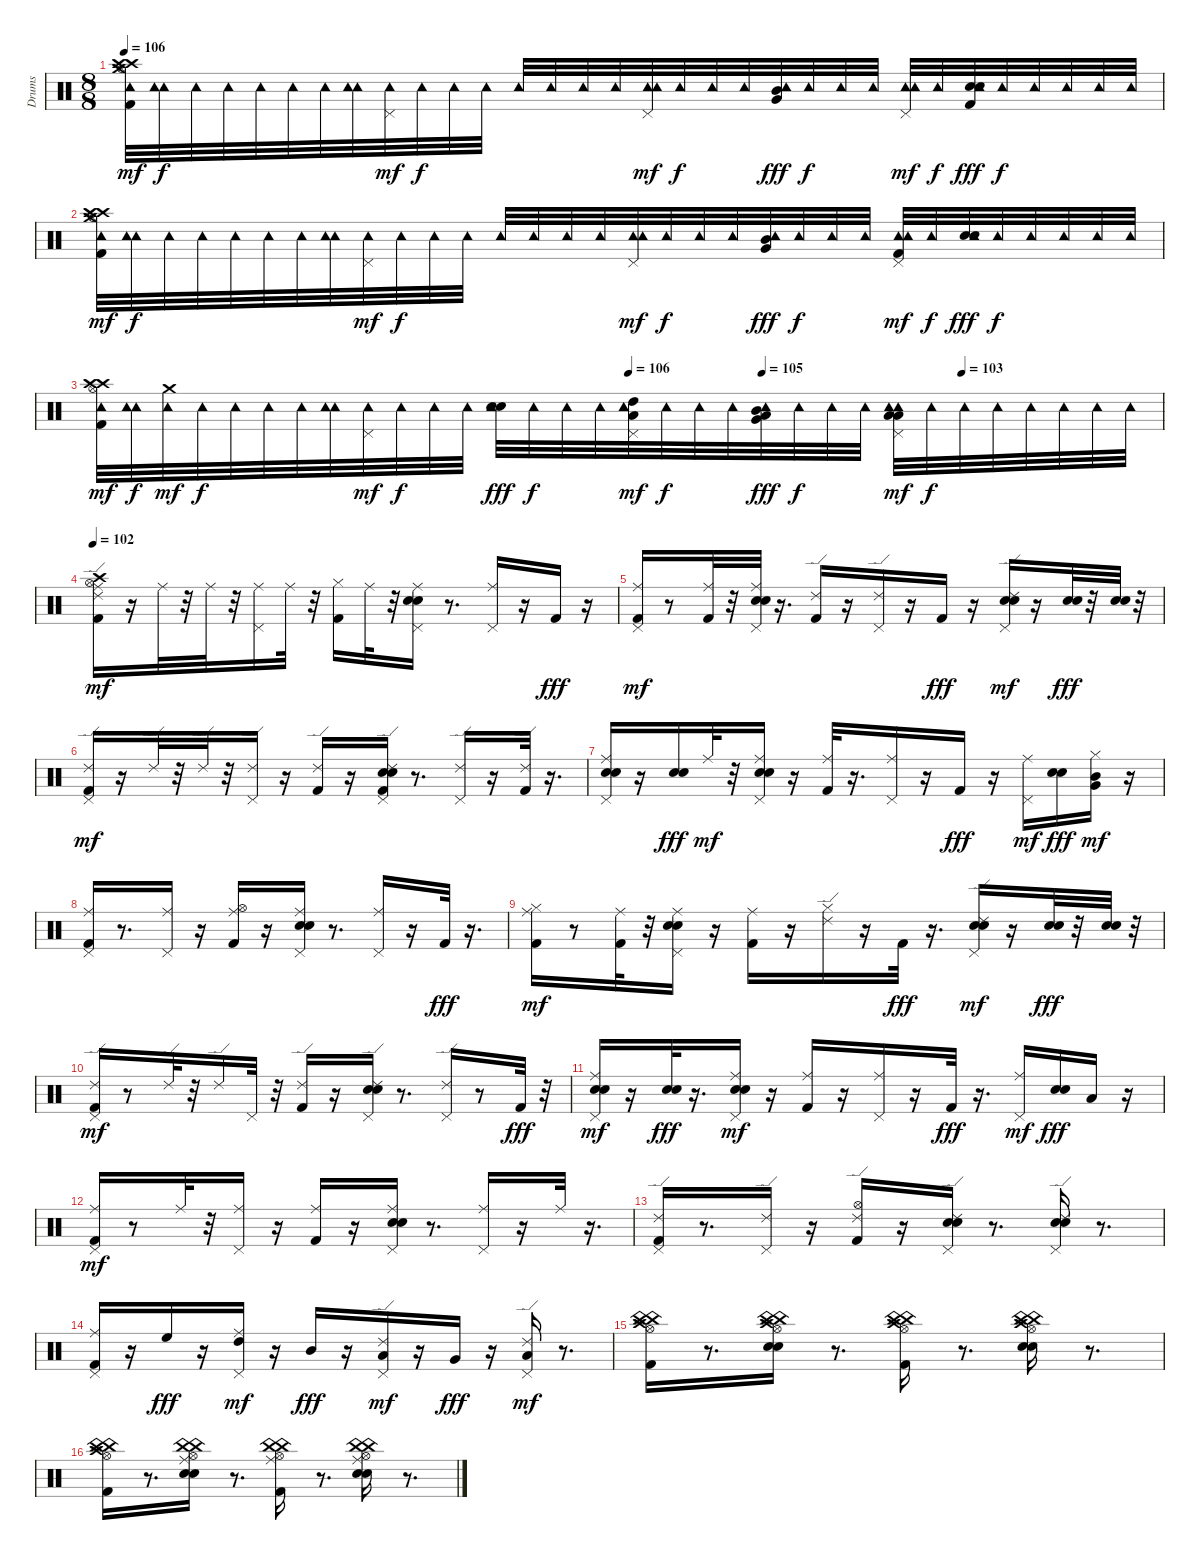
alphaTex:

\track ("Drums" "Drums") {instrument percussion}
\staff {score}
\articulation defaults
\ts (8 8)
\tempo 106
\clef neutral
\ks c
("Crash high (hit)" "Kick (hit) 2" "Hi-Hat (open)" "Tambourine (hit)" "Crash high (hit)" "Crash medium (hit)").32{dy mf} ("Tambourine (hit)" "Tambourine (hit)").32{dy f} "Tambourine (hit)".32 "Tambourine (hit)".32 "Tambourine (hit)".32 "Tambourine (hit)".32 "Tambourine (hit)".32 ("Tambourine (hit)" "Tambourine (hit)").32 ("Pedal Hi-Hat (hit)" "Tambourine (hit)").32{dy mf} "Tambourine (hit)".32{dy f} "Tambourine (hit)".32 "Tambourine (hit)".32 "Tambourine (hit)".32 "Tambourine (hit)".32 "Tambourine (hit)".32 "Tambourine (hit)".32 ("Pedal Hi-Hat (hit)" "Tambourine (hit)" "Tambourine (hit)").32{dy mf} "Tambourine (hit)".32{dy f} "Tambourine (hit)".32 "Tambourine (hit)".32 ("Mid Tom (hit)" "Very Low Tom (hit)" "Tambourine (hit)").32{dy fff} "Tambourine (hit)".32{dy f} "Tambourine (hit)".32 "Tambourine (hit)".32 ("Pedal Hi-Hat (hit)" "Tambourine (hit)" "Tambourine (hit)").32{dy mf} "Tambourine (hit)".32{dy f} ("Electric Snare (hit)" "Kick (hit) 2" "Snare (hit) 2" "Tambourine (hit)").32{dy fff} "Tambourine (hit)".32{dy f} "Tambourine (hit)".32 "Tambourine (hit)".32 "Tambourine (hit)".32 "Tambourine (hit)".32 |
("Crash high (hit)" "Kick (hit) 2" "Hi-Hat (open)" "Tambourine (hit)" "Crash medium (hit)" "Crash high (hit)").32{dy mf} ("Tambourine (hit)" "Tambourine (hit)").32{dy f} "Tambourine (hit)".32 "Tambourine (hit)".32 "Tambourine (hit)".32 "Tambourine (hit)".32 "Tambourine (hit)".32 ("Tambourine (hit)" "Tambourine (hit)").32 ("Pedal Hi-Hat (hit)" "Tambourine (hit)").32{dy mf} "Tambourine (hit)".32{dy f} "Tambourine (hit)".32 "Tambourine (hit)".32 "Tambourine (hit)".32 "Tambourine (hit)".32 "Tambourine (hit)".32 "Tambourine (hit)".32 ("Pedal Hi-Hat (hit)" "Tambourine (hit)" "Tambourine (hit)").32{dy mf} "Tambourine (hit)".32{dy f} "Tambourine (hit)".32 "Tambourine (hit)".32 ("Mid Tom (hit)" "Very Low Tom (hit)" "Tambourine (hit)").32{dy fff} "Tambourine (hit)".32{dy f} "Tambourine (hit)".32 "Tambourine (hit)".32 ("Kick (hit) 2" "Pedal Hi-Hat (hit)" "Tambourine (hit)" "Tambourine (hit)").32{dy mf} "Tambourine (hit)".32{dy f} ("Electric Snare (hit)" "Snare (hit) 2" "Tambourine (hit)").32{dy fff} "Tambourine (hit)".32{dy f} "Tambourine (hit)".32 "Tambourine (hit)".32 "Tambourine (hit)".32 "Tambourine (hit)".32 |
\tempo (106 0.5)
\tempo (105 0.625)
\tempo (103 0.8125)
("Kick (hit) 2" "Crash high (hit)" "Hi-Hat (open)" "Tambourine (hit)" "Crash high (hit)").32{dy mf} ("Tambourine (hit)" "Tambourine (hit)").32{dy f} ("Tambourine (hit)" "Crash medium (hit)").32{dy mf} "Tambourine (hit)".32{dy f} "Tambourine (hit)".32 "Tambourine (hit)".32 "Tambourine (hit)".32 ("Tambourine (hit)" "Tambourine (hit)").32 ("Pedal Hi-Hat (hit)" "Tambourine (hit)").32{dy mf} "Tambourine (hit)".32{dy f} "Tambourine (hit)".32 "Tambourine (hit)".32 ("Electric Snare (hit)" "Snare (hit) 2" "Tambourine (hit)").32{dy fff} "Tambourine (hit)".32{dy f} "Tambourine (hit)".32 "Tambourine (hit)".32 ("Low Tom (hit)" "High Tom (hit)" "Pedal Hi-Hat (hit)" "Tambourine (hit)" "Tambourine (hit)").32{dy mf} "Tambourine (hit)".32{dy f} "Tambourine (hit)".32 "Tambourine (hit)".32 ("Low Tom (hit)" "Mid Tom (hit)" "Very Low Tom (hit)" "Tambourine (hit)").32{dy fff} "Tambourine (hit)".32{dy f} "Tambourine (hit)".32 "Tambourine (hit)".32 ("Low Floor Tom (hit)" "Low Tom (hit)" "Pedal Hi-Hat (hit)" "Tambourine (hit)" "Tambourine (hit)").32{dy mf} "Tambourine (hit)".32{dy f} "Tambourine (hit)".32 "Tambourine (hit)".32 "Tambourine (hit)".32 "Tambourine (hit)".32 "Tambourine (hit)".32 "Tambourine (hit)".32 |
\tempo 102
("Crash high (hit)" "Kick (hit) 2" "Hi-Hat (open)" "Ride (edge) 2" "Ride (middle)").16{dy mf} r.16 "Ride (middle)".32 r.32 "Ride (middle)".32 r.32 ("Pedal Hi-Hat (hit)" "Ride (middle)").16 "Ride (middle)".32 r.32 ("Kick (hit) 2" "Hi-Hat (closed)").16 "Ride (middle)".32 r.32 ("Electric Snare (hit)" "Snare (hit) 2" "Pedal Hi-Hat (hit)" "Ride (middle)").16 r.8{d} ("Pedal Hi-Hat (hit)" "Ride (middle)").16 r.16 "Kick (hit) 2".16{dy fff} r.16 |
("Kick (hit) 2" "Pedal Hi-Hat (hit)" "Ride (middle)").16{dy mf} r.8 ("Kick (hit) 2" "Ride (middle)").32 r.32 ("Electric Snare (hit)" "Snare (hit) 2" "Pedal Hi-Hat (hit)" "Ride (middle)").32 r.16{d} ("Kick (hit) 2" "Ride (edge) 2").16 r.16 ("Pedal Hi-Hat (hit)" "Ride (edge) 2").16 r.16 "Kick (hit) 2".16{dy fff} r.16 ("Electric Snare (hit)" "Snare (hit) 2" "Pedal Hi-Hat (hit)" "Ride (edge) 2").16{dy mf} r.16 ("Electric Snare (hit)" "Snare (hit) 2").32{dy fff} r.32 ("Electric Snare (hit)" "Snare (hit) 2").32 r.32 |
("Kick (hit) 2" "Pedal Hi-Hat (hit)" "Ride (edge) 2").16{dy mf} r.16 "Ride (edge) 2".32 r.32 "Ride (edge) 2".32 r.32 ("Pedal Hi-Hat (hit)" "Ride (edge) 2").16 r.16 ("Kick (hit) 2" "Ride (edge) 2").16 r.16 ("Electric Snare (hit)" "Kick (hit) 2" "Snare (hit) 2" "Pedal Hi-Hat (hit)" "Ride (edge) 2").16 r.8{d} ("Pedal Hi-Hat (hit)" "Ride (edge) 2").16 r.16 ("Kick (hit) 2" "Ride (edge) 2").32 r.16{d} |
("Electric Snare (hit)" "Snare (hit) 2" "Pedal Hi-Hat (hit)" "Ride (middle)").16 r.16 ("Electric Snare (hit)" "Snare (hit) 2").16{dy fff} "Ride (middle)".32{dy mf} r.32 ("Electric Snare (hit)" "Snare (hit) 2" "Pedal Hi-Hat (hit)" "Ride (middle)").16 r.16 ("Kick (hit) 2" "Ride (middle)").32 r.16{d} ("Pedal Hi-Hat (hit)" "Ride (middle)").16 r.16 "Kick (hit) 2".16{dy fff} r.16 ("Pedal Hi-Hat (hit)" "Ride (middle)").16{dy mf} ("Electric Snare (hit)" "Snare (hit) 2").16{dy fff} ("Mid Tom (hit)" "Very Low Tom (hit)" "Hi-Hat (closed)").16{dy mf} r.16 |
("Kick (hit) 2" "Pedal Hi-Hat (hit)" "Ride (middle)").16 r.8{d} ("Pedal Hi-Hat (hit)" "Ride (middle)").16 r.16 ("Kick (hit) 2" "Hi-Hat (open)" "Ride (middle)").16 r.16 ("Electric Snare (hit)" "Snare (hit) 2" "Pedal Hi-Hat (hit)" "Ride (middle)").16 r.8{d} ("Pedal Hi-Hat (hit)" "Ride (middle)").16 r.16 "Kick (hit) 2".32{dy fff} r.16{d} |
("Kick (hit) 2" "Hi-Hat (closed)" "Ride (middle)").16{dy mf} r.8 ("Kick (hit) 2" "Ride (middle)").32 r.32 ("Electric Snare (hit)" "Snare (hit) 2" "Pedal Hi-Hat (hit)" "Ride (middle)").16 r.16 ("Kick (hit) 2" "Ride (middle)").16 r.16 ("Hi-Hat (closed)" "Ride (edge) 2").16 r.16 "Kick (hit) 2".32{dy fff} r.16{d} ("Electric Snare (hit)" "Snare (hit) 2" "Pedal Hi-Hat (hit)" "Ride (edge) 2").16{dy mf} r.16 ("Electric Snare (hit)" "Snare (hit) 2").32{dy fff} r.32 ("Electric Snare (hit)" "Snare (hit) 2").32 r.32 |
("Kick (hit) 2" "Pedal Hi-Hat (hit)" "Ride (edge) 2").16{dy mf} r.8 "Ride (edge) 2".32 r.32 "Ride (edge) 2".16 "Pedal Hi-Hat (hit)".32 r.32 ("Kick (hit) 2" "Ride (edge) 2").16 r.16 ("Electric Snare (hit)" "Snare (hit) 2" "Pedal Hi-Hat (hit)" "Ride (edge) 2").16 r.8{d} ("Pedal Hi-Hat (hit)" "Ride (edge) 2").16 r.8 "Kick (hit) 2".32{dy fff} r.32 |
("Electric Snare (hit)" "Snare (hit) 2" "Pedal Hi-Hat (hit)" "Ride (middle)").16{dy mf} r.16 ("Electric Snare (hit)" "Snare (hit) 2").32{dy fff} r.16{d} ("Electric Snare (hit)" "Snare (hit) 2" "Pedal Hi-Hat (hit)" "Ride (middle)").16{dy mf} r.16 ("Kick (hit) 2" "Ride (middle)").16 r.16 ("Pedal Hi-Hat (hit)" "Ride (middle)").16 r.16 "Kick (hit) 2".32{dy fff} r.16{d} ("Pedal Hi-Hat (hit)" "Ride (middle)").16{dy mf} ("Electric Snare (hit)" "Snare (hit) 2").16{dy fff} "Low Tom (hit)".16 r.16 |
("Kick (hit) 2" "Pedal Hi-Hat (hit)" "Ride (middle)").16{dy mf} r.8 "Ride (middle)".32 r.32 ("Pedal Hi-Hat (hit)" "Ride (middle)").16 r.16 ("Kick (hit) 2" "Ride (middle)").16 r.16 ("Electric Snare (hit)" "Snare (hit) 2" "Pedal Hi-Hat (hit)" "Ride (middle)").16 r.8{d} ("Pedal Hi-Hat (hit)" "Ride (middle)").16 r.16 "Ride (middle)".32 r.16{d} |
("Kick (hit) 2" "Pedal Hi-Hat (hit)" "Ride (edge) 2").16 r.8{d} ("Pedal Hi-Hat (hit)" "Ride (edge) 2").16 r.16 ("Kick (hit) 2" "Hi-Hat (open)" "Ride (edge) 2").16 r.16 ("Electric Snare (hit)" "Snare (hit) 2" "Pedal Hi-Hat (hit)" "Ride (edge) 2").16 r.8{d} ("Electric Snare (hit)" "Snare (hit) 2" "Pedal Hi-Hat (hit)" "Ride (edge) 2").16 r.8{d} |
("Kick (hit) 2" "Pedal Hi-Hat (hit)" "Ride (middle)").16 r.16 "High Floor Tom (hit)".16{dy fff} r.16 ("High Tom (hit)" "Pedal Hi-Hat (hit)" "Ride (middle)").16{dy mf} r.16 "Mid Tom (hit)".16{dy fff} r.16 ("Low Tom (hit)" "Pedal Hi-Hat (hit)" "Ride (edge) 2").16{dy mf} r.16 "Very Low Tom (hit)".16{dy fff} r.16 ("Low Floor Tom (hit)" "Pedal Hi-Hat (hit)" "Ride (edge) 2").16{dy mf} r.8{d} |
("Kick (hit) 2" "China (hit)" "China (hit)" "Hi-Hat (open)" "Crash high (hit)").16 r.8{d} ("Electric Snare (hit)" "China (hit)" "Snare (hit) 2" "China (hit)" "Hi-Hat (open)" "Crash high (hit)").16 r.8{d} ("Kick (hit) 2" "China (hit)" "Hi-Hat (open)" "China (hit)" "Crash high (hit)").16 r.8{d} ("Electric Snare (hit)" "China (hit)" "Snare (hit) 2" "China (hit)" "Hi-Hat (open)" "Crash high (hit)").16 r.8{d} |
("China (hit)" "Kick (hit) 2" "China (hit)" "Hi-Hat (open)" "Crash high (hit)").16 r.8{d} ("Electric Snare (hit)" "China (hit)" "Snare (hit) 2" "China (hit)" "Hi-Hat (open)" "Ride (middle)").16 r.8{d} ("China (hit)" "Kick (hit) 2" "Hi-Hat (open)" "China (hit)" "Ride (middle)").16 r.8{d} ("Electric Snare (hit)" "China (hit)" "Snare (hit) 2" "Hi-Hat (open)" "China (hit)" "Ride (middle)").16 r.8{d}
